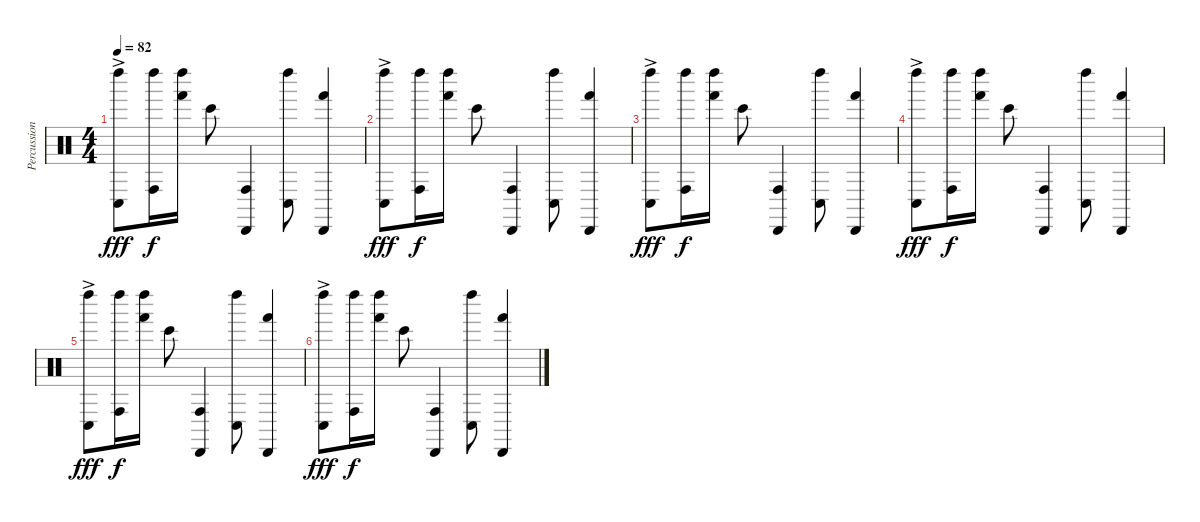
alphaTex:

\track ("Percussion" "Percussion") {instrument percussion}
\staff {score}
\articulation defaults
\ts (4 4)
\tempo 82
\clef neutral
\ks c
("Conga low (hit)"{ac} "Left Maraca (hit)").8{dy fff volume 10} ("Conga high (hit)" "Left Maraca (hit)").16{dy f} ("Hand (hit)" "Left Maraca (hit)").16 "Bongo High (hit)".8 ("Conga high (hit)" "Cabasa (hit)").4 ("Conga low (hit)" "Left Maraca (hit)").8 ("Hand (hit)" "Cabasa (hit)").4 |
("Conga low (hit)"{ac} "Left Maraca (hit)").8{dy fff volume 7} ("Conga high (hit)" "Left Maraca (hit)").16{dy f} ("Hand (hit)" "Left Maraca (hit)").16 "Bongo High (hit)".8 ("Conga high (hit)" "Cabasa (hit)").4 ("Conga low (hit)" "Left Maraca (hit)").8 ("Hand (hit)" "Cabasa (hit)").4 |
("Conga low (hit)"{ac} "Left Maraca (hit)").8{dy fff volume 5} ("Conga high (hit)" "Left Maraca (hit)").16{dy f} ("Hand (hit)" "Left Maraca (hit)").16 "Bongo High (hit)".8 ("Conga high (hit)" "Cabasa (hit)").4 ("Conga low (hit)" "Left Maraca (hit)").8 ("Hand (hit)" "Cabasa (hit)").4 |
("Conga low (hit)"{ac} "Left Maraca (hit)").8{dy fff} ("Conga high (hit)" "Left Maraca (hit)").16{dy f volume 4} ("Hand (hit)" "Left Maraca (hit)").16 "Bongo High (hit)".8 ("Conga high (hit)" "Cabasa (hit)").4 ("Conga low (hit)" "Left Maraca (hit)").8 ("Hand (hit)" "Cabasa (hit)").4 |
("Conga low (hit)"{ac} "Left Maraca (hit)").8{dy fff volume 2} ("Conga high (hit)" "Left Maraca (hit)").16{dy f} ("Hand (hit)" "Left Maraca (hit)").16 "Bongo High (hit)".8 ("Conga high (hit)" "Cabasa (hit)").4 ("Conga low (hit)" "Left Maraca (hit)").8 ("Hand (hit)" "Cabasa (hit)").4 |
("Conga low (hit)"{ac} "Left Maraca (hit)").8{dy fff volume 0} ("Conga high (hit)" "Left Maraca (hit)").16{dy f} ("Hand (hit)" "Left Maraca (hit)").16 "Bongo High (hit)".8 ("Conga high (hit)" "Cabasa (hit)").4 ("Conga low (hit)" "Left Maraca (hit)").8 ("Hand (hit)" "Cabasa (hit)").4
